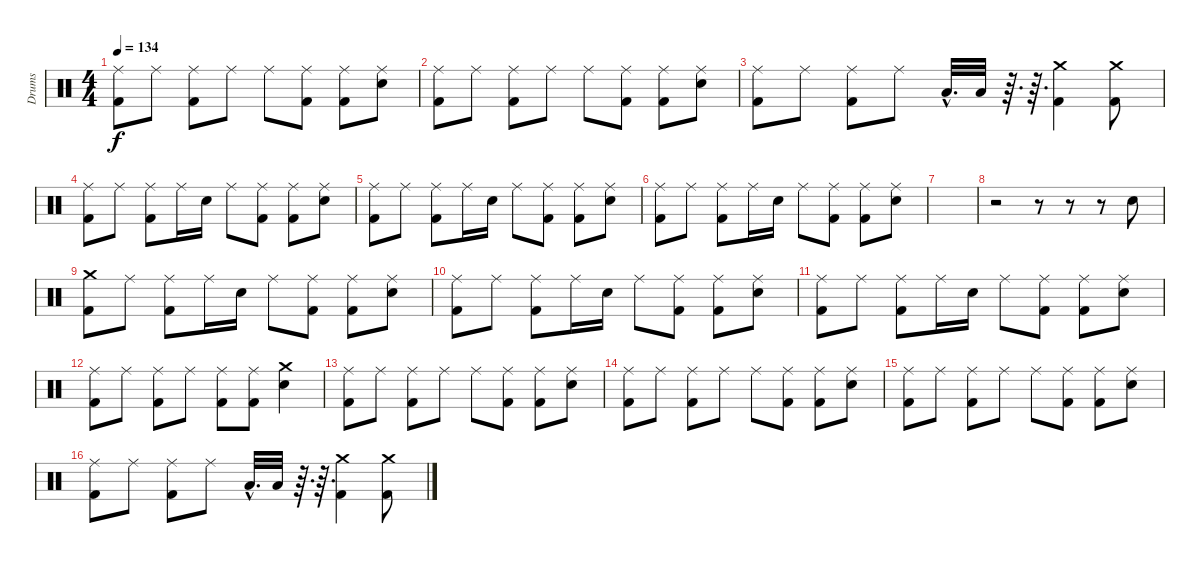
\track ("Drums" "Drums") {instrument percussion}
\staff {score}
\articulation defaults
\ts (4 4)
\tempo 134
\clef neutral
\ks c
("Ride (middle)" "Kick (hit) 2").8{dy f} "Ride (middle)".8 ("Ride (middle)" "Kick (hit) 2").8 "Ride (middle)".8 "Ride (middle)".8 ("Ride (middle)" "Kick (hit) 2").8 ("Ride (middle)" "Kick (hit) 2").8 ("Ride (middle)" "Snare (hit) 2").8 |
("Ride (middle)" "Kick (hit) 2").8 "Ride (middle)".8 ("Ride (middle)" "Kick (hit) 2").8 "Ride (middle)".8 "Ride (middle)".8 ("Ride (middle)" "Kick (hit) 2").8 ("Ride (middle)" "Kick (hit) 2").8 ("Ride (middle)" "Snare (hit) 2").8 |
("Ride (middle)" "Kick (hit) 2").8 "Ride (middle)".8 ("Ride (middle)" "Kick (hit) 2").8 "Ride (middle)".8 "Low Tom (hit)"{hac}.32{d} "Low Tom (hit)".32 r.64{d} r.64{d} ("Crash medium (hit)" "Kick (hit) 2").4 ("Crash medium (hit)" "Kick (hit) 2").8 |
("Ride (middle)" "Kick (hit) 2").8 "Ride (middle)".8 ("Ride (middle)" "Kick (hit) 2").8 "Ride (middle)".16 "Snare (hit) 2".16 "Ride (middle)".8 ("Ride (middle)" "Kick (hit) 2").8 ("Ride (middle)" "Kick (hit) 2").8 ("Ride (middle)" "Snare (hit) 2").8 |
("Ride (middle)" "Kick (hit) 2").8 "Ride (middle)".8 ("Ride (middle)" "Kick (hit) 2").8 "Ride (middle)".16 "Snare (hit) 2".16 "Ride (middle)".8 ("Ride (middle)" "Kick (hit) 2").8 ("Ride (middle)" "Kick (hit) 2").8 ("Ride (middle)" "Snare (hit) 2").8 |
("Ride (middle)" "Kick (hit) 2").8 "Ride (middle)".8 ("Ride (middle)" "Kick (hit) 2").8 "Ride (middle)".16 "Snare (hit) 2".16 "Ride (middle)".8 ("Ride (middle)" "Kick (hit) 2").8 ("Ride (middle)" "Kick (hit) 2").8 ("Ride (middle)" "Snare (hit) 2").8 |
|
r.2 r.8 r.8 r.8 "Snare (hit) 2".8 |
("Crash medium (hit)" "Kick (hit) 2").8 "Ride (middle)".8 ("Ride (middle)" "Kick (hit) 2").8 "Ride (middle)".16 "Snare (hit) 2".16 "Ride (middle)".8 ("Ride (middle)" "Kick (hit) 2").8 ("Ride (middle)" "Kick (hit) 2").8 ("Ride (middle)" "Snare (hit) 2").8 |
("Ride (middle)" "Kick (hit) 2").8 "Ride (middle)".8 ("Ride (middle)" "Kick (hit) 2").8 "Ride (middle)".16 "Snare (hit) 2".16 "Ride (middle)".8 ("Ride (middle)" "Kick (hit) 2").8 ("Ride (middle)" "Kick (hit) 2").8 ("Ride (middle)" "Snare (hit) 2").8 |
("Ride (middle)" "Kick (hit) 2").8 "Ride (middle)".8 ("Ride (middle)" "Kick (hit) 2").8 "Ride (middle)".16 "Snare (hit) 2".16 "Ride (middle)".8 ("Ride (middle)" "Kick (hit) 2").8 ("Ride (middle)" "Kick (hit) 2").8 ("Ride (middle)" "Snare (hit) 2").8 |
("Ride (middle)" "Kick (hit) 2").8 "Ride (middle)".8 ("Ride (middle)" "Kick (hit) 2").8 "Ride (middle)".8 ("Ride (middle)" "Kick (hit) 2").8 ("Ride (middle)" "Kick (hit) 2").8 ("Crash medium (hit)" "Snare (hit) 2").4 |
("Ride (middle)" "Kick (hit) 2").8 "Ride (middle)".8 ("Ride (middle)" "Kick (hit) 2").8 "Ride (middle)".8 "Ride (middle)".8 ("Ride (middle)" "Kick (hit) 2").8 ("Ride (middle)" "Kick (hit) 2").8 ("Ride (middle)" "Snare (hit) 2").8 |
("Ride (middle)" "Kick (hit) 2").8 "Ride (middle)".8 ("Ride (middle)" "Kick (hit) 2").8 "Ride (middle)".8 "Ride (middle)".8 ("Ride (middle)" "Kick (hit) 2").8 ("Ride (middle)" "Kick (hit) 2").8 ("Ride (middle)" "Snare (hit) 2").8 |
("Ride (middle)" "Kick (hit) 2").8 "Ride (middle)".8 ("Ride (middle)" "Kick (hit) 2").8 "Ride (middle)".8 "Ride (middle)".8 ("Ride (middle)" "Kick (hit) 2").8 ("Ride (middle)" "Kick (hit) 2").8 ("Ride (middle)" "Snare (hit) 2").8 |
("Ride (middle)" "Kick (hit) 2").8 "Ride (middle)".8 ("Ride (middle)" "Kick (hit) 2").8 "Ride (middle)".8 "Low Tom (hit)"{hac}.32{d} "Low Tom (hit)".32 r.64{d} r.64{d} ("Crash medium (hit)" "Kick (hit) 2").4 ("Crash medium (hit)" "Kick (hit) 2").8
